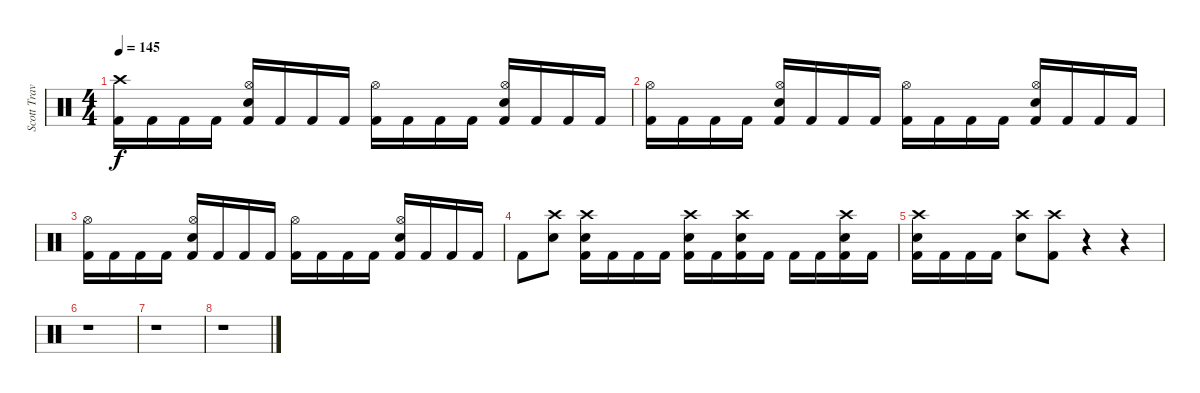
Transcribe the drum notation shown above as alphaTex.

\track ("Scott Travis" "Scott Trav") {instrument percussion}
\staff {score}
\articulation defaults
\ts (4 4)
\tempo 145
\clef neutral
\ks c
("Crash high (hit)" "Kick (hit) 2").16{dy f} "Kick (hit) 2".16 "Kick (hit) 2".16 "Kick (hit) 2".16 ("Hi-Hat (open)" "Snare (hit) 2" "Kick (hit) 2").16 "Kick (hit) 2".16 "Kick (hit) 2".16 "Kick (hit) 2".16 ("Hi-Hat (open)" "Kick (hit) 2").16 "Kick (hit) 2".16 "Kick (hit) 2".16 "Kick (hit) 2".16 ("Hi-Hat (open)" "Snare (hit) 2" "Kick (hit) 2").16 "Kick (hit) 2".16 "Kick (hit) 2".16 "Kick (hit) 2".16 |
("Hi-Hat (open)" "Kick (hit) 2").16 "Kick (hit) 2".16 "Kick (hit) 2".16 "Kick (hit) 2".16 ("Hi-Hat (open)" "Snare (hit) 2" "Kick (hit) 2").16 "Kick (hit) 2".16 "Kick (hit) 2".16 "Kick (hit) 2".16 ("Hi-Hat (open)" "Kick (hit) 2").16 "Kick (hit) 2".16 "Kick (hit) 2".16 "Kick (hit) 2".16 ("Hi-Hat (open)" "Snare (hit) 2" "Kick (hit) 2").16 "Kick (hit) 2".16 "Kick (hit) 2".16 "Kick (hit) 2".16 |
("Hi-Hat (open)" "Kick (hit) 2").16 "Kick (hit) 2".16 "Kick (hit) 2".16 "Kick (hit) 2".16 ("Hi-Hat (open)" "Snare (hit) 2" "Kick (hit) 2").16 "Kick (hit) 2".16 "Kick (hit) 2".16 "Kick (hit) 2".16 ("Hi-Hat (open)" "Kick (hit) 2").16 "Kick (hit) 2".16 "Kick (hit) 2".16 "Kick (hit) 2".16 ("Hi-Hat (open)" "Snare (hit) 2" "Kick (hit) 2").16 "Kick (hit) 2".16 "Kick (hit) 2".16 "Kick (hit) 2".16 |
"Kick (hit) 2".8 ("Crash high (hit)" "Snare (hit) 2").8 ("Crash high (hit)" "Snare (hit) 2" "Kick (hit) 2").16 "Kick (hit) 2".16 "Kick (hit) 2".16 "Kick (hit) 2".16 ("Crash high (hit)" "Snare (hit) 2" "Kick (hit) 2").16 "Kick (hit) 2".16 ("Crash high (hit)" "Snare (hit) 2" "Kick (hit) 2").16 "Kick (hit) 2".16 "Kick (hit) 2".16 "Kick (hit) 2".16 ("Crash high (hit)" "Snare (hit) 2" "Kick (hit) 2").16 "Kick (hit) 2".16 |
("Crash high (hit)" "Snare (hit) 2" "Kick (hit) 2").16 "Kick (hit) 2".16 "Kick (hit) 2".16 "Kick (hit) 2".16 ("Crash high (hit)" "Snare (hit) 2").8 ("Crash high (hit)" "Kick (hit) 2").8 r.4 r.4 |
r.1 |
r.1 |
r.1
